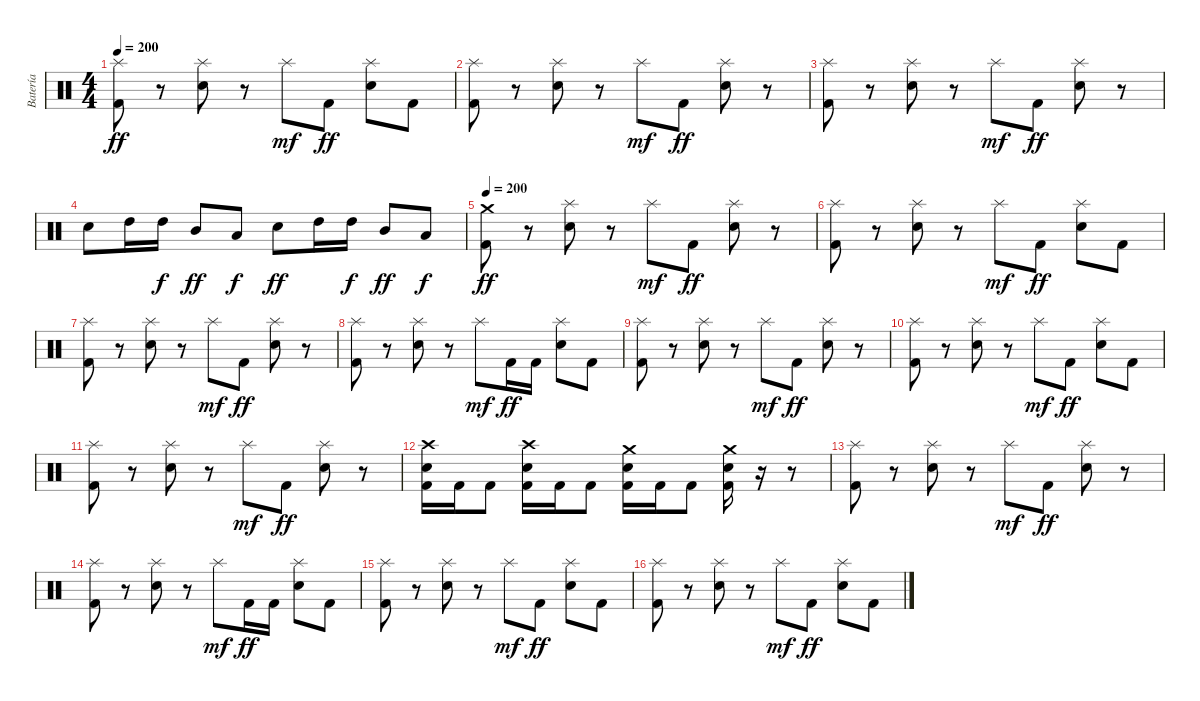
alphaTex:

\track ("Batería" "Batería") {instrument percussion}
\staff {score}
\articulation defaults
\ts (4 4)
\tempo 200
\clef neutral
\ks c
("Splash (hit)" "Kick (hit) 2").8{dy ff} r.8 ("Splash (hit)" "Electric Snare (hit)").8 r.8 "Splash (hit)".8{dy mf} "Kick (hit) 2".8{dy ff} ("Splash (hit)" "Electric Snare (hit)").8 "Kick (hit) 2".8 |
("Splash (hit)" "Kick (hit) 2").8 r.8 ("Splash (hit)" "Electric Snare (hit)").8 r.8 "Splash (hit)".8{dy mf} "Kick (hit) 2".8{dy ff} ("Splash (hit)" "Electric Snare (hit)").8 r.8 |
("Splash (hit)" "Kick (hit) 2").8 r.8 ("Splash (hit)" "Electric Snare (hit)").8 r.8 "Splash (hit)".8{dy mf} "Kick (hit) 2".8{dy ff} ("Splash (hit)" "Electric Snare (hit)").8 r.8 |
"Electric Snare (hit)".8 "High Tom (hit)".16 "High Tom (hit)".16{dy f} "Mid Tom (hit)".8{dy ff} "Low Tom (hit)".8{dy f} "Electric Snare (hit)".8{dy ff} "High Tom (hit)".16 "High Tom (hit)".16{dy f} "Mid Tom (hit)".8{dy ff} "Low Tom (hit)".8{dy f} |
\tempo 200
("Crash medium (hit)" "Kick (hit) 2").8{dy ff} r.8 ("Splash (hit)" "Electric Snare (hit)").8 r.8 "Splash (hit)".8{dy mf} "Kick (hit) 2".8{dy ff} ("Splash (hit)" "Electric Snare (hit)").8 r.8 |
("Splash (hit)" "Kick (hit) 2").8 r.8 ("Splash (hit)" "Electric Snare (hit)").8 r.8 "Splash (hit)".8{dy mf} "Kick (hit) 2".8{dy ff} ("Splash (hit)" "Electric Snare (hit)").8 "Kick (hit) 2".8 |
("Splash (hit)" "Kick (hit) 2").8 r.8 ("Splash (hit)" "Electric Snare (hit)").8 r.8 "Splash (hit)".8{dy mf} "Kick (hit) 2".8{dy ff} ("Splash (hit)" "Electric Snare (hit)").8 r.8 |
("Splash (hit)" "Kick (hit) 2").8 r.8 ("Splash (hit)" "Electric Snare (hit)").8 r.8 "Splash (hit)".8{dy mf} "Kick (hit) 2".16{dy ff} "Kick (hit) 2".16 ("Splash (hit)" "Electric Snare (hit)").8 "Kick (hit) 2".8 |
("Splash (hit)" "Kick (hit) 2").8 r.8 ("Splash (hit)" "Electric Snare (hit)").8 r.8 "Splash (hit)".8{dy mf} "Kick (hit) 2".8{dy ff} ("Splash (hit)" "Electric Snare (hit)").8 r.8 |
("Splash (hit)" "Kick (hit) 2").8 r.8 ("Splash (hit)" "Electric Snare (hit)").8 r.8 "Splash (hit)".8{dy mf} "Kick (hit) 2".8{dy ff} ("Splash (hit)" "Electric Snare (hit)").8 "Kick (hit) 2".8 |
("Splash (hit)" "Kick (hit) 2").8 r.8 ("Splash (hit)" "Electric Snare (hit)").8 r.8 "Splash (hit)".8{dy mf} "Kick (hit) 2".8{dy ff} ("Splash (hit)" "Electric Snare (hit)").8 r.8 |
("Crash high (hit)" "Electric Snare (hit)" "Kick (hit) 2").16 "Kick (hit) 2".16 "Kick (hit) 2".8 ("Crash high (hit)" "Electric Snare (hit)" "Kick (hit) 2").16 "Kick (hit) 2".16 "Kick (hit) 2".8 ("Crash medium (hit)" "Electric Snare (hit)" "Kick (hit) 2").16 "Kick (hit) 2".16 "Kick (hit) 2".8 ("Crash medium (hit)" "Electric Snare (hit)" "Kick (hit) 2").16 r.16 r.8 |
("Splash (hit)" "Kick (hit) 2").8 r.8 ("Splash (hit)" "Electric Snare (hit)").8 r.8 "Splash (hit)".8{dy mf} "Kick (hit) 2".8{dy ff} ("Splash (hit)" "Electric Snare (hit)").8 r.8 |
("Splash (hit)" "Kick (hit) 2").8 r.8 ("Splash (hit)" "Electric Snare (hit)").8 r.8 "Splash (hit)".8{dy mf} "Kick (hit) 2".16{dy ff} "Kick (hit) 2".16 ("Splash (hit)" "Electric Snare (hit)").8 "Kick (hit) 2".8 |
("Splash (hit)" "Kick (hit) 2").8 r.8 ("Splash (hit)" "Electric Snare (hit)").8 r.8 "Splash (hit)".8{dy mf} "Kick (hit) 2".8{dy ff} ("Splash (hit)" "Electric Snare (hit)").8 "Kick (hit) 2".8 |
("Splash (hit)" "Kick (hit) 2").8 r.8 ("Splash (hit)" "Electric Snare (hit)").8 r.8 "Splash (hit)".8{dy mf} "Kick (hit) 2".8{dy ff} ("Splash (hit)" "Electric Snare (hit)").8 "Kick (hit) 2".8
